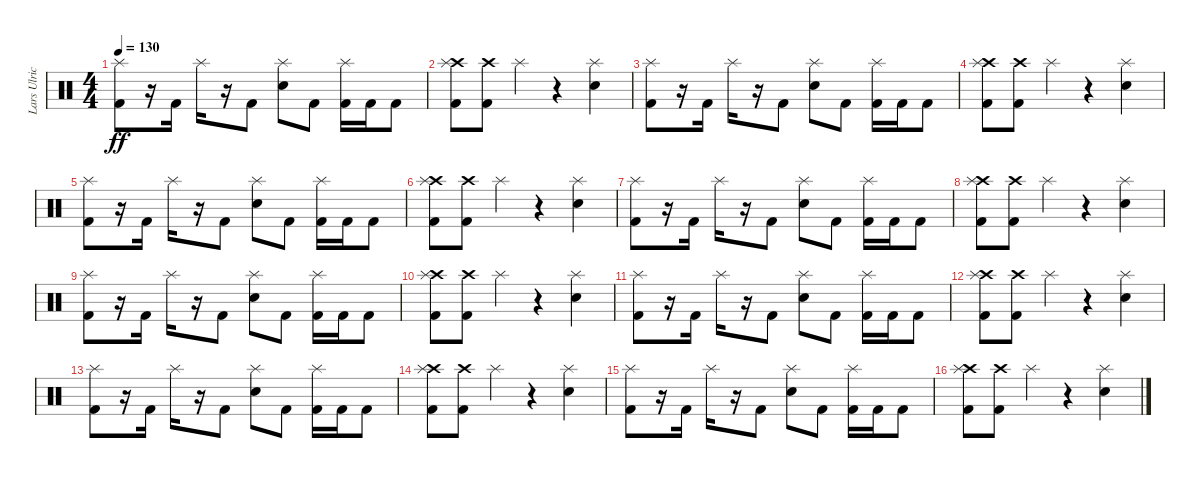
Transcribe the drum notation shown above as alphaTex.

\track ("Lars Ulrich" "Lars Ulric") {instrument percussion}
\staff {score}
\articulation defaults
\ts (4 4)
\tempo 130
\clef neutral
\ks c
("Kick (hit) 2" "Splash (hit)").8{dy ff} r.16 "Kick (hit) 2".16 "Splash (hit)".16 r.16 "Kick (hit) 2".8 ("Electric Snare (hit)" "Splash (hit)").8 "Kick (hit) 2".8 ("Kick (hit) 2" "Splash (hit)").16 "Kick (hit) 2".16 "Kick (hit) 2".8 |
("Kick (hit) 2" "Crash high (hit)" "Splash (hit)").8 ("Kick (hit) 2" "Crash high (hit)").8 "Splash (hit)".4 r.4 ("Electric Snare (hit)" "Splash (hit)").4 |
("Kick (hit) 2" "Splash (hit)").8 r.16 "Kick (hit) 2".16 "Splash (hit)".16 r.16 "Kick (hit) 2".8 ("Electric Snare (hit)" "Splash (hit)").8 "Kick (hit) 2".8 ("Kick (hit) 2" "Splash (hit)").16 "Kick (hit) 2".16 "Kick (hit) 2".8 |
("Kick (hit) 2" "Crash high (hit)" "Splash (hit)").8 ("Kick (hit) 2" "Crash high (hit)").8 "Splash (hit)".4 r.4 ("Electric Snare (hit)" "Splash (hit)").4 |
("Kick (hit) 2" "Splash (hit)").8 r.16 "Kick (hit) 2".16 "Splash (hit)".16 r.16 "Kick (hit) 2".8 ("Electric Snare (hit)" "Splash (hit)").8 "Kick (hit) 2".8 ("Kick (hit) 2" "Splash (hit)").16 "Kick (hit) 2".16 "Kick (hit) 2".8 |
("Kick (hit) 2" "Crash high (hit)" "Splash (hit)").8 ("Kick (hit) 2" "Crash high (hit)").8 "Splash (hit)".4 r.4 ("Electric Snare (hit)" "Splash (hit)").4 |
("Kick (hit) 2" "Splash (hit)").8 r.16 "Kick (hit) 2".16 "Splash (hit)".16 r.16 "Kick (hit) 2".8 ("Electric Snare (hit)" "Splash (hit)").8 "Kick (hit) 2".8 ("Kick (hit) 2" "Splash (hit)").16 "Kick (hit) 2".16 "Kick (hit) 2".8 |
("Kick (hit) 2" "Crash high (hit)" "Splash (hit)").8 ("Kick (hit) 2" "Crash high (hit)").8 "Splash (hit)".4 r.4 ("Electric Snare (hit)" "Splash (hit)").4 |
("Kick (hit) 2" "Splash (hit)").8 r.16 "Kick (hit) 2".16 "Splash (hit)".16 r.16 "Kick (hit) 2".8 ("Electric Snare (hit)" "Splash (hit)").8 "Kick (hit) 2".8 ("Kick (hit) 2" "Splash (hit)").16 "Kick (hit) 2".16 "Kick (hit) 2".8 |
("Kick (hit) 2" "Crash high (hit)" "Splash (hit)").8 ("Kick (hit) 2" "Crash high (hit)").8 "Splash (hit)".4 r.4 ("Electric Snare (hit)" "Splash (hit)").4 |
("Kick (hit) 2" "Splash (hit)").8 r.16 "Kick (hit) 2".16 "Splash (hit)".16 r.16 "Kick (hit) 2".8 ("Electric Snare (hit)" "Splash (hit)").8 "Kick (hit) 2".8 ("Kick (hit) 2" "Splash (hit)").16 "Kick (hit) 2".16 "Kick (hit) 2".8 |
("Kick (hit) 2" "Crash high (hit)" "Splash (hit)").8 ("Kick (hit) 2" "Crash high (hit)").8 "Splash (hit)".4 r.4 ("Electric Snare (hit)" "Splash (hit)").4 |
("Kick (hit) 2" "Splash (hit)").8 r.16 "Kick (hit) 2".16 "Splash (hit)".16 r.16 "Kick (hit) 2".8 ("Electric Snare (hit)" "Splash (hit)").8 "Kick (hit) 2".8 ("Kick (hit) 2" "Splash (hit)").16 "Kick (hit) 2".16 "Kick (hit) 2".8 |
("Kick (hit) 2" "Crash high (hit)" "Splash (hit)").8 ("Kick (hit) 2" "Crash high (hit)").8 "Splash (hit)".4 r.4 ("Electric Snare (hit)" "Splash (hit)").4 |
("Kick (hit) 2" "Splash (hit)").8 r.16 "Kick (hit) 2".16 "Splash (hit)".16 r.16 "Kick (hit) 2".8 ("Electric Snare (hit)" "Splash (hit)").8 "Kick (hit) 2".8 ("Kick (hit) 2" "Splash (hit)").16 "Kick (hit) 2".16 "Kick (hit) 2".8 |
("Kick (hit) 2" "Crash high (hit)" "Splash (hit)").8 ("Kick (hit) 2" "Crash high (hit)").8 "Splash (hit)".4 r.4 ("Electric Snare (hit)" "Splash (hit)").4
